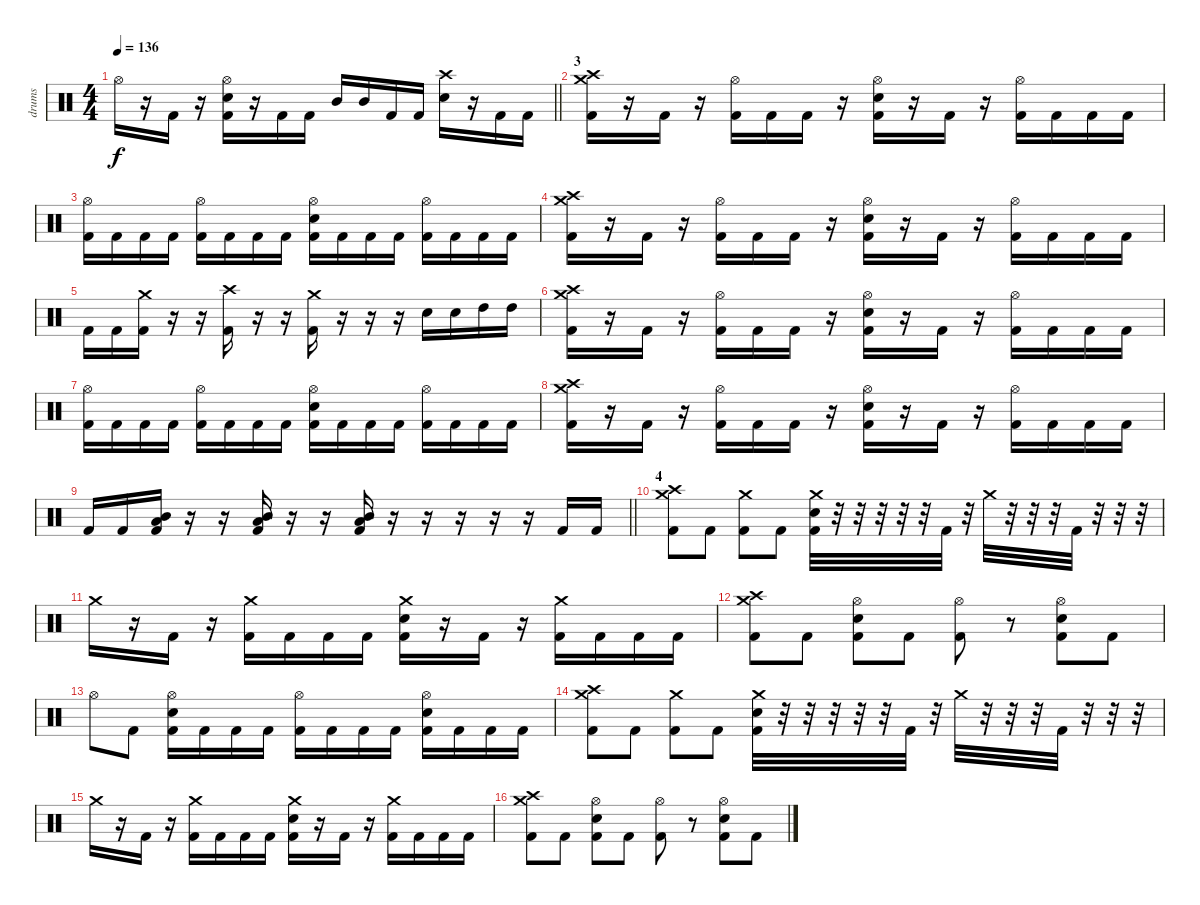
\track ("drums" "drums") {instrument percussion}
\staff {score}
\articulation defaults
\ts (4 4)
\tempo 136
\clef neutral
\barLineRight lightlight
\ks c "Hi-Hat (open)".16{dy f}
r.16 "Kick (hit) 2".16 r.16 ("Hi-Hat (open)" "Electric Snare (hit)" "Kick (hit) 2").16 r.16 "Kick (hit) 2".16 "Kick (hit) 2".16 "Mid Tom (hit)".16 "Mid Tom (hit)".16 "Kick (hit) 2".16 "Kick (hit) 2".16 ("Crash high (hit)" "Electric Snare (hit)").16 r.16 "Kick (hit) 2".16 "Kick (hit) 2".16 |
\section ("" "3")
("Crash medium (hit)" "Crash high (hit)" "Kick (hit) 2").16 r.16 "Kick (hit) 2".16 r.16 ("Hi-Hat (open)" "Kick (hit) 2").16 "Kick (hit) 2".16 "Kick (hit) 2".16 r.16 ("Hi-Hat (open)" "Electric Snare (hit)" "Kick (hit) 2").16 r.16 "Kick (hit) 2".16 r.16 ("Hi-Hat (open)" "Kick (hit) 2").16 "Kick (hit) 2".16 "Kick (hit) 2".16 "Kick (hit) 2".16 |
("Hi-Hat (open)" "Kick (hit) 2").16 "Kick (hit) 2".16 "Kick (hit) 2".16 "Kick (hit) 2".16 ("Hi-Hat (open)" "Kick (hit) 2").16 "Kick (hit) 2".16 "Kick (hit) 2".16 "Kick (hit) 2".16 ("Hi-Hat (open)" "Electric Snare (hit)" "Kick (hit) 2").16 "Kick (hit) 2".16 "Kick (hit) 2".16 "Kick (hit) 2".16 ("Hi-Hat (open)" "Kick (hit) 2").16 "Kick (hit) 2".16 "Kick (hit) 2".16 "Kick (hit) 2".16 |
("Crash medium (hit)" "Crash high (hit)" "Kick (hit) 2").16 r.16 "Kick (hit) 2".16 r.16 ("Hi-Hat (open)" "Kick (hit) 2").16 "Kick (hit) 2".16 "Kick (hit) 2".16 r.16 ("Hi-Hat (open)" "Electric Snare (hit)" "Kick (hit) 2").16 r.16 "Kick (hit) 2".16 r.16 ("Hi-Hat (open)" "Kick (hit) 2").16 "Kick (hit) 2".16 "Kick (hit) 2".16 "Kick (hit) 2".16 |
"Kick (hit) 2".16 "Kick (hit) 2".16 ("Crash medium (hit)" "Kick (hit) 2").16 r.16 r.16 ("Crash high (hit)" "Kick (hit) 2").16 r.16 r.16 ("Crash medium (hit)" "Kick (hit) 2").16 r.16 r.16 r.16 "Electric Snare (hit)".16 "Electric Snare (hit)".16 "High Tom (hit)".16 "High Tom (hit)".16 |
("Crash medium (hit)" "Crash high (hit)" "Kick (hit) 2").16 r.16 "Kick (hit) 2".16 r.16 ("Hi-Hat (open)" "Kick (hit) 2").16 "Kick (hit) 2".16 "Kick (hit) 2".16 r.16 ("Hi-Hat (open)" "Electric Snare (hit)" "Kick (hit) 2").16 r.16 "Kick (hit) 2".16 r.16 ("Hi-Hat (open)" "Kick (hit) 2").16 "Kick (hit) 2".16 "Kick (hit) 2".16 "Kick (hit) 2".16 |
("Hi-Hat (open)" "Kick (hit) 2").16 "Kick (hit) 2".16 "Kick (hit) 2".16 "Kick (hit) 2".16 ("Hi-Hat (open)" "Kick (hit) 2").16 "Kick (hit) 2".16 "Kick (hit) 2".16 "Kick (hit) 2".16 ("Hi-Hat (open)" "Electric Snare (hit)" "Kick (hit) 2").16 "Kick (hit) 2".16 "Kick (hit) 2".16 "Kick (hit) 2".16 ("Hi-Hat (open)" "Kick (hit) 2").16 "Kick (hit) 2".16 "Kick (hit) 2".16 "Kick (hit) 2".16 |
("Crash medium (hit)" "Crash high (hit)" "Kick (hit) 2").16 r.16 "Kick (hit) 2".16 r.16 ("Hi-Hat (open)" "Kick (hit) 2").16 "Kick (hit) 2".16 "Kick (hit) 2".16 r.16 ("Hi-Hat (open)" "Electric Snare (hit)" "Kick (hit) 2").16 r.16 "Kick (hit) 2".16 r.16 ("Hi-Hat (open)" "Kick (hit) 2").16 "Kick (hit) 2".16 "Kick (hit) 2".16 "Kick (hit) 2".16 |
\barLineRight lightlight "Kick (hit) 2".16 "Kick (hit) 2".16
("Mid Tom (hit)" "Low Floor Tom (hit)" "Kick (hit) 2").16 r.16 r.16 ("Mid Tom (hit)" "Low Floor Tom (hit)" "Kick (hit) 2").16 r.16 r.16 ("Mid Tom (hit)" "Low Floor Tom (hit)" "Kick (hit) 2").16 r.16 r.16 r.16 r.16 r.16 "Kick (hit) 2".16 "Kick (hit) 2".16 |
\section ("" "4")
("Crash medium (hit)" "Crash high (hit)" "Kick (hit) 2").8 "Kick (hit) 2".8 ("Crash medium (hit)" "Kick (hit) 2").8 "Kick (hit) 2".8 ("Crash medium (hit)" "Electric Snare (hit)" "Kick (hit) 2").32 r.32 r.32 r.32 r.32 r.32 "Kick (hit) 2".32 r.32 "Crash medium (hit)".32 r.32 r.32 r.32 "Kick (hit) 2".32 r.32 r.32 r.32 |
"Crash medium (hit)".16 r.16 "Kick (hit) 2".16 r.16 ("Crash medium (hit)" "Kick (hit) 2").16 "Kick (hit) 2".16 "Kick (hit) 2".16 "Kick (hit) 2".16 ("Crash medium (hit)" "Electric Snare (hit)" "Kick (hit) 2").16 r.16 "Kick (hit) 2".16 r.16 ("Crash medium (hit)" "Kick (hit) 2").16 "Kick (hit) 2".16 "Kick (hit) 2".16 "Kick (hit) 2".16 |
("Crash medium (hit)" "Crash high (hit)" "Kick (hit) 2").8 "Kick (hit) 2".8 ("Hi-Hat (open)" "Electric Snare (hit)" "Kick (hit) 2").8 "Kick (hit) 2".8 ("Hi-Hat (open)" "Kick (hit) 2").8 r.8 ("Hi-Hat (open)" "Electric Snare (hit)" "Kick (hit) 2").8 "Kick (hit) 2".8 |
"Hi-Hat (open)".8 "Kick (hit) 2".8 ("Hi-Hat (open)" "Electric Snare (hit)" "Kick (hit) 2").16 "Kick (hit) 2".16 "Kick (hit) 2".16 "Kick (hit) 2".16 ("Hi-Hat (open)" "Kick (hit) 2").16 "Kick (hit) 2".16 "Kick (hit) 2".16 "Kick (hit) 2".16 ("Hi-Hat (open)" "Electric Snare (hit)" "Kick (hit) 2").16 "Kick (hit) 2".16 "Kick (hit) 2".16 "Kick (hit) 2".16 |
("Crash medium (hit)" "Crash high (hit)" "Kick (hit) 2").8 "Kick (hit) 2".8 ("Crash medium (hit)" "Kick (hit) 2").8 "Kick (hit) 2".8 ("Crash medium (hit)" "Electric Snare (hit)" "Kick (hit) 2").32 r.32 r.32 r.32 r.32 r.32 "Kick (hit) 2".32 r.32 "Crash medium (hit)".32 r.32 r.32 r.32 "Kick (hit) 2".32 r.32 r.32 r.32 |
"Crash medium (hit)".16 r.16 "Kick (hit) 2".16 r.16 ("Crash medium (hit)" "Kick (hit) 2").16 "Kick (hit) 2".16 "Kick (hit) 2".16 "Kick (hit) 2".16 ("Crash medium (hit)" "Electric Snare (hit)" "Kick (hit) 2").16 r.16 "Kick (hit) 2".16 r.16 ("Crash medium (hit)" "Kick (hit) 2").16 "Kick (hit) 2".16 "Kick (hit) 2".16 "Kick (hit) 2".16 |
("Crash medium (hit)" "Crash high (hit)" "Kick (hit) 2").8 "Kick (hit) 2".8 ("Hi-Hat (open)" "Electric Snare (hit)" "Kick (hit) 2").8 "Kick (hit) 2".8 ("Hi-Hat (open)" "Kick (hit) 2").8 r.8 ("Hi-Hat (open)" "Electric Snare (hit)" "Kick (hit) 2").8 "Kick (hit) 2".8
